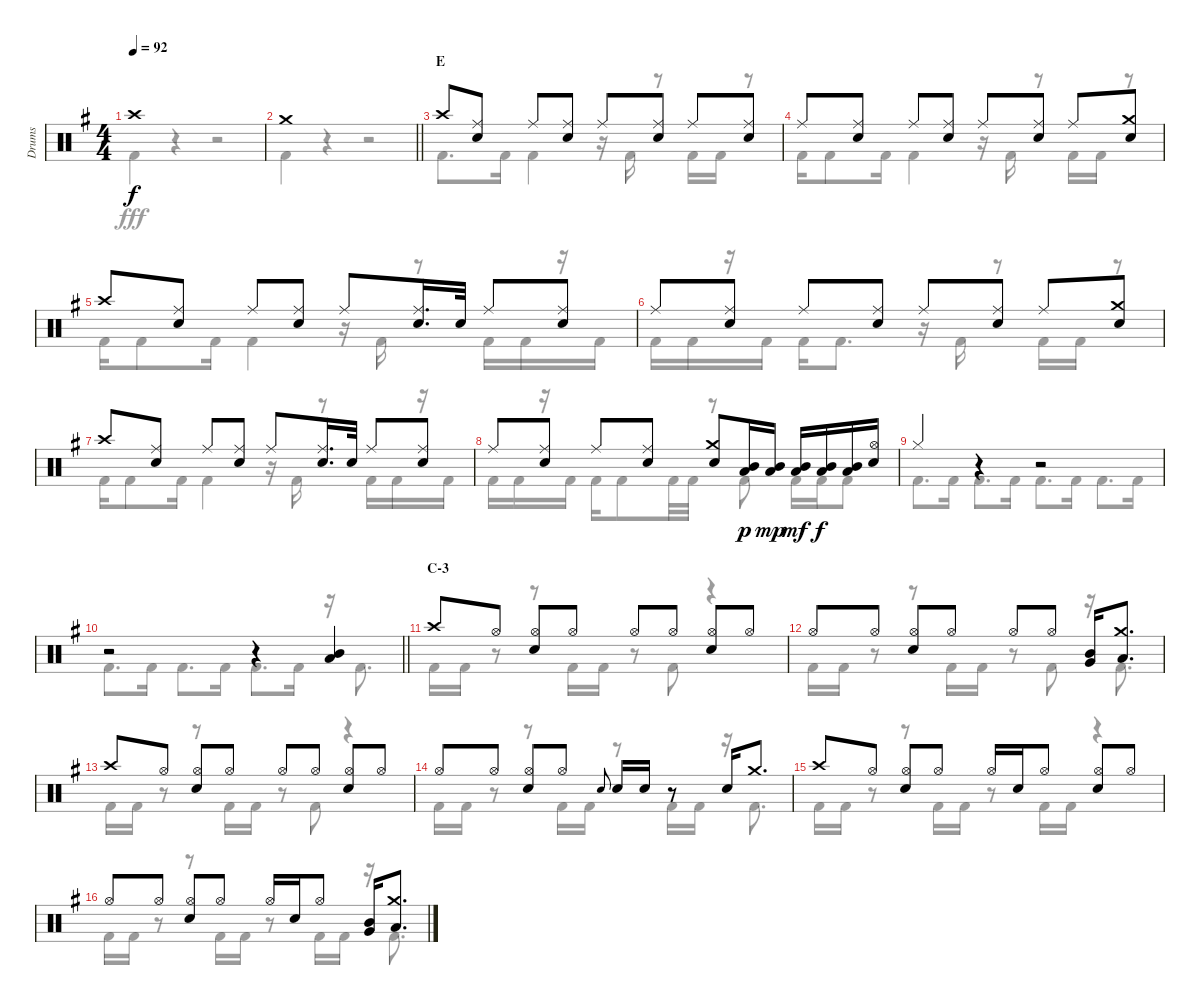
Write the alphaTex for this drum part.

\track ("Drums" "Drums") {instrument percussion}
\staff {score}
\articulation defaults
\voice
\ts (4 4)
\tempo 92
\clef neutral
\ks eminor "Crash high (hit)".1{dy f}
|
\barLineRight lightlight "Crash medium (hit)".1
|
\section ("" "E")
"Crash high (hit)".8 ("Ride (middle)" "Snare (hit) 2").8 "Ride (middle)".8 ("Ride (middle)" "Snare (hit) 2").8 "Ride (middle)".8 ("Ride (middle)" "Snare (hit) 2").8 "Ride (middle)".8 ("Ride (middle)" "Snare (hit) 2").8 |
"Ride (middle)".8 ("Ride (middle)" "Snare (hit) 2").8 "Ride (middle)".8 ("Ride (middle)" "Snare (hit) 2").8 "Ride (middle)".8 ("Ride (middle)" "Snare (hit) 2").8 "Ride (middle)".8 ("Crash medium (hit)" "Snare (hit) 2").8 |
"Crash high (hit)".8 ("Ride (middle)" "Snare (hit) 2").8 "Ride (middle)".8 ("Ride (middle)" "Snare (hit) 2").8 "Ride (middle)".8 ("Ride (middle)" "Snare (hit) 2").16{d} "Snare (hit) 2".32 "Ride (middle)".8 ("Ride (middle)" "Snare (hit) 2").8 |
"Ride (middle)".8 ("Ride (middle)" "Snare (hit) 2").8 "Ride (middle)".8 ("Ride (middle)" "Snare (hit) 2").8 "Ride (middle)".8 ("Ride (middle)" "Snare (hit) 2").8 "Ride (middle)".8 ("Crash medium (hit)" "Snare (hit) 2").8 |
"Crash high (hit)".8 ("Ride (middle)" "Snare (hit) 2").8 "Ride (middle)".8 ("Ride (middle)" "Snare (hit) 2").8 "Ride (middle)".8 ("Ride (middle)" "Snare (hit) 2").16{d} "Snare (hit) 2".32 "Ride (middle)".8 ("Ride (middle)" "Snare (hit) 2").8 |
"Ride (middle)".8 ("Ride (middle)" "Snare (hit) 2").8 "Ride (middle)".8 ("Ride (middle)" "Snare (hit) 2").8 ("Crash medium (hit)" "Snare (hit) 2").8 ("Mid Tom (hit)" "Low Tom (hit)").16{dy p} ("Mid Tom (hit)" "Low Tom (hit)").16{dy mp} ("Mid Tom (hit)" "Low Tom (hit)").16{dy mf} ("Mid Tom (hit)" "Low Tom (hit)").16{dy f} ("Mid Tom (hit)" "Low Tom (hit)").16 ("Hi-Hat (open)" "Snare (hit) 2").16 |
"Hi-Hat (closed)".4 r.4 r.2 |
\barLineRight lightlight
r.2 r.4 ("Mid Tom (hit)" "Low Tom (hit)").4 |
\section ("" "C-3")
"Crash high (hit)".8 "Hi-Hat (open)".8 ("Hi-Hat (open)" "Snare (hit) 2").8 "Hi-Hat (open)".8 "Hi-Hat (open)".8 "Hi-Hat (open)".8 ("Hi-Hat (open)" "Snare (hit) 2").8 "Hi-Hat (open)".8 |
"Hi-Hat (open)".8 "Hi-Hat (open)".8 ("Hi-Hat (open)" "Snare (hit) 2").8 "Hi-Hat (open)".8 "Hi-Hat (open)".8 "Hi-Hat (open)".8 ("Mid Tom (hit)" "Very Low Tom (hit)").16 ("Crash medium (hit)" "Low Tom (hit)").8{d} |
"Crash high (hit)".8 "Hi-Hat (open)".8 ("Hi-Hat (open)" "Snare (hit) 2").8 "Hi-Hat (open)".8 "Hi-Hat (open)".8 "Hi-Hat (open)".8 ("Hi-Hat (open)" "Snare (hit) 2").8 "Hi-Hat (open)".8 |
"Hi-Hat (open)".8 "Hi-Hat (open)".8 ("Hi-Hat (open)" "Snare (hit) 2").8 "Hi-Hat (open)".8 "Snare (hit) 2".8{gr onbeat} "Snare (hit) 2".16 "Snare (hit) 2".16 r.8 "Snare (hit) 2".16 "Crash medium (hit)".8{d} |
"Crash high (hit)".8 "Hi-Hat (open)".8 ("Hi-Hat (open)" "Snare (hit) 2").8 "Hi-Hat (open)".8 "Hi-Hat (open)".16 "Snare (hit) 2".16 "Hi-Hat (open)".8 ("Hi-Hat (open)" "Snare (hit) 2").8 "Hi-Hat (open)".8 |
"Hi-Hat (open)".8 "Hi-Hat (open)".8 ("Hi-Hat (open)" "Snare (hit) 2").8 "Hi-Hat (open)".8 "Hi-Hat (open)".16 "Snare (hit) 2".16 "Hi-Hat (open)".8 ("Mid Tom (hit)" "Very Low Tom (hit)").16 ("Crash medium (hit)" "Low Tom (hit)").8{d}
\voice
\clef neutral
\ottava regular
\simile none
\ks eminor "Kick (hit) 2".4{dy fff}
r.4 r.2 |
\barLineRight lightlight "Kick (hit) 2".4
r.4 r.2 |
"Kick (hit) 2".8{d} "Kick (hit) 2".16 "Kick (hit) 2".4 r.16 "Kick (hit) 2".16 r.8 "Kick (hit) 2".16 "Kick (hit) 2".16 r.8 |
"Kick (hit) 2".16 "Kick (hit) 2".8 "Kick (hit) 2".16 "Kick (hit) 2".4 r.16 "Kick (hit) 2".16 r.8 "Kick (hit) 2".16 "Kick (hit) 2".16 r.8 |
"Kick (hit) 2".16 "Kick (hit) 2".8 "Kick (hit) 2".16 "Kick (hit) 2".4 r.16 "Kick (hit) 2".16 r.8 "Kick (hit) 2".16 "Kick (hit) 2".16 r.16 "Kick (hit) 2".16 |
"Kick (hit) 2".16 "Kick (hit) 2".16 r.16 "Kick (hit) 2".16 "Kick (hit) 2".16 "Kick (hit) 2".8{d} r.16 "Kick (hit) 2".16 r.8 "Kick (hit) 2".16 "Kick (hit) 2".16 r.8 |
"Kick (hit) 2".16 "Kick (hit) 2".8 "Kick (hit) 2".16 "Kick (hit) 2".4 r.16 "Kick (hit) 2".16 r.8 "Kick (hit) 2".16 "Kick (hit) 2".16 r.16 "Kick (hit) 2".16 |
"Kick (hit) 2".16 "Kick (hit) 2".16 r.16 "Kick (hit) 2".16 "Kick (hit) 2".16 "Kick (hit) 2".8 "Kick (hit) 2".32 "Kick (hit) 2".32 r.8 "Kick (hit) 2".8 "Kick (hit) 2".16 "Kick (hit) 2".16 "Kick (hit) 2".8 |
"Kick (hit) 2".8{d} "Kick (hit) 2".16 "Kick (hit) 2".8{d} "Kick (hit) 2".16 "Kick (hit) 2".8{d} "Kick (hit) 2".16 "Kick (hit) 2".8{d} "Kick (hit) 2".16 |
\barLineRight lightlight "Kick (hit) 2".8{d} "Kick (hit) 2".16 "Kick (hit) 2".8{d} "Kick (hit) 2".16 "Kick (hit) 2".8{d} "Kick (hit) 2".16
r.16 "Kick (hit) 2".8{d} |
"Kick (hit) 2".16 "Kick (hit) 2".16 r.8 r.8 "Kick (hit) 2".16 "Kick (hit) 2".16 r.8 "Kick (hit) 2".8 r.4 |
"Kick (hit) 2".16 "Kick (hit) 2".16 r.8 r.8 "Kick (hit) 2".16 "Kick (hit) 2".16 r.8 "Kick (hit) 2".8 r.16 "Kick (hit) 2".8{d} |
"Kick (hit) 2".16 "Kick (hit) 2".16 r.8 r.8 "Kick (hit) 2".16 "Kick (hit) 2".16 r.8 "Kick (hit) 2".8 r.4 |
"Kick (hit) 2".16 "Kick (hit) 2".16 r.8 r.8 "Kick (hit) 2".16 "Kick (hit) 2".16 r.8 "Kick (hit) 2".16 "Kick (hit) 2".16 r.16 "Kick (hit) 2".8{d} |
"Kick (hit) 2".16 "Kick (hit) 2".16 r.8 r.8 "Kick (hit) 2".16 "Kick (hit) 2".16 r.8 "Kick (hit) 2".16 "Kick (hit) 2".16 r.4 |
"Kick (hit) 2".16 "Kick (hit) 2".16 r.8 r.8 "Kick (hit) 2".16 "Kick (hit) 2".16 r.8 "Kick (hit) 2".16 "Kick (hit) 2".16 r.16 "Kick (hit) 2".8{d}
